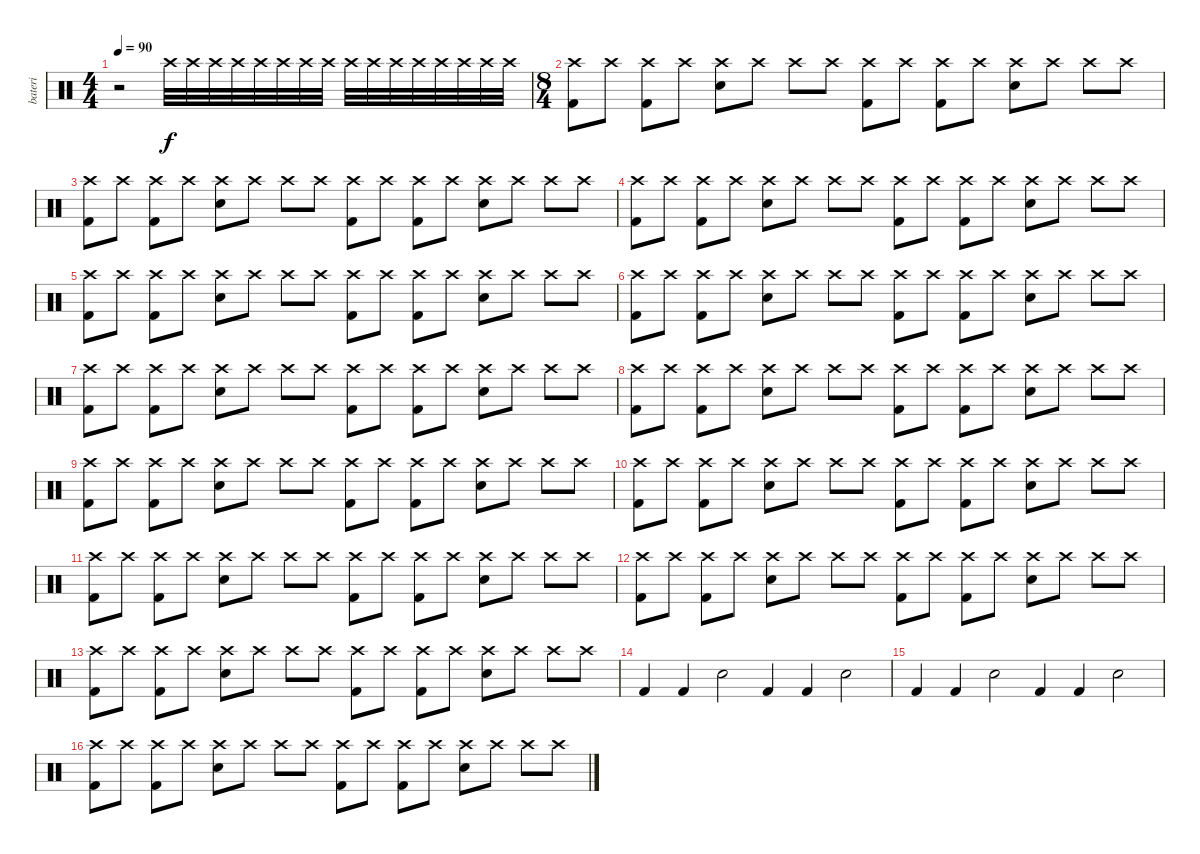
\track ("bateri" "bateri") {instrument percussion}
\staff {score}
\articulation defaults
\ts (4 4)
\tempo 90
\clef neutral
\ks c
r.2{dy f} "Crash high (hit)".32{volume 2} "Crash high (hit)".32{volume 4} "Crash high (hit)".32{volume 5} "Crash high (hit)".32{volume 7} "Crash high (hit)".32{volume 8} "Crash high (hit)".32{volume 9} "Crash high (hit)".32{volume 11} "Crash high (hit)".32{volume 13} "Crash high (hit)".32 "Crash high (hit)".32 "Crash high (hit)".32 "Crash high (hit)".32 "Crash high (hit)".32 "Crash high (hit)".32 "Crash high (hit)".32 "Crash high (hit)".32 |
\ts (8 4)
("Kick (hit) 2" "Crash high (hit)").8 "Crash high (hit)".8 ("Crash high (hit)" "Kick (hit) 2").8 "Crash high (hit)".8 ("Crash high (hit)" "Snare (hit) 2").8 "Crash high (hit)".8 "Crash high (hit)".8 "Crash high (hit)".8 ("Kick (hit) 2" "Crash high (hit)").8 "Crash high (hit)".8 ("Crash high (hit)" "Kick (hit) 2").8 "Crash high (hit)".8 ("Crash high (hit)" "Snare (hit) 2").8 "Crash high (hit)".8 "Crash high (hit)".8 "Crash high (hit)".8 |
("Kick (hit) 2" "Crash high (hit)").8 "Crash high (hit)".8 ("Crash high (hit)" "Kick (hit) 2").8 "Crash high (hit)".8 ("Crash high (hit)" "Snare (hit) 2").8 "Crash high (hit)".8 "Crash high (hit)".8 "Crash high (hit)".8 ("Kick (hit) 2" "Crash high (hit)").8 "Crash high (hit)".8 ("Crash high (hit)" "Kick (hit) 2").8 "Crash high (hit)".8 ("Crash high (hit)" "Snare (hit) 2").8 "Crash high (hit)".8 "Crash high (hit)".8 "Crash high (hit)".8 |
("Kick (hit) 2" "Crash high (hit)").8 "Crash high (hit)".8 ("Crash high (hit)" "Kick (hit) 2").8 "Crash high (hit)".8 ("Crash high (hit)" "Snare (hit) 2").8 "Crash high (hit)".8 "Crash high (hit)".8 "Crash high (hit)".8 ("Kick (hit) 2" "Crash high (hit)").8 "Crash high (hit)".8 ("Crash high (hit)" "Kick (hit) 2").8 "Crash high (hit)".8 ("Crash high (hit)" "Snare (hit) 2").8 "Crash high (hit)".8 "Crash high (hit)".8 "Crash high (hit)".8 |
("Kick (hit) 2" "Crash high (hit)").8 "Crash high (hit)".8 ("Crash high (hit)" "Kick (hit) 2").8 "Crash high (hit)".8 ("Crash high (hit)" "Snare (hit) 2").8 "Crash high (hit)".8 "Crash high (hit)".8 "Crash high (hit)".8 ("Kick (hit) 2" "Crash high (hit)").8 "Crash high (hit)".8 ("Crash high (hit)" "Kick (hit) 2").8 "Crash high (hit)".8 ("Crash high (hit)" "Snare (hit) 2").8 "Crash high (hit)".8 "Crash high (hit)".8 "Crash high (hit)".8 |
("Kick (hit) 2" "Crash high (hit)").8 "Crash high (hit)".8 ("Crash high (hit)" "Kick (hit) 2").8 "Crash high (hit)".8 ("Crash high (hit)" "Snare (hit) 2").8 "Crash high (hit)".8 "Crash high (hit)".8 "Crash high (hit)".8 ("Kick (hit) 2" "Crash high (hit)").8 "Crash high (hit)".8 ("Crash high (hit)" "Kick (hit) 2").8 "Crash high (hit)".8 ("Crash high (hit)" "Snare (hit) 2").8 "Crash high (hit)".8 "Crash high (hit)".8 "Crash high (hit)".8 |
("Kick (hit) 2" "Crash high (hit)").8 "Crash high (hit)".8 ("Crash high (hit)" "Kick (hit) 2").8 "Crash high (hit)".8 ("Crash high (hit)" "Snare (hit) 2").8 "Crash high (hit)".8 "Crash high (hit)".8 "Crash high (hit)".8 ("Kick (hit) 2" "Crash high (hit)").8 "Crash high (hit)".8 ("Crash high (hit)" "Kick (hit) 2").8 "Crash high (hit)".8 ("Crash high (hit)" "Snare (hit) 2").8 "Crash high (hit)".8 "Crash high (hit)".8 "Crash high (hit)".8 |
("Kick (hit) 2" "Crash high (hit)").8 "Crash high (hit)".8 ("Crash high (hit)" "Kick (hit) 2").8 "Crash high (hit)".8 ("Crash high (hit)" "Snare (hit) 2").8 "Crash high (hit)".8 "Crash high (hit)".8 "Crash high (hit)".8 ("Kick (hit) 2" "Crash high (hit)").8 "Crash high (hit)".8 ("Crash high (hit)" "Kick (hit) 2").8 "Crash high (hit)".8 ("Crash high (hit)" "Snare (hit) 2").8 "Crash high (hit)".8 "Crash high (hit)".8 "Crash high (hit)".8 |
("Kick (hit) 2" "Crash high (hit)").8 "Crash high (hit)".8 ("Crash high (hit)" "Kick (hit) 2").8 "Crash high (hit)".8 ("Crash high (hit)" "Snare (hit) 2").8 "Crash high (hit)".8 "Crash high (hit)".8 "Crash high (hit)".8 ("Kick (hit) 2" "Crash high (hit)").8 "Crash high (hit)".8 ("Crash high (hit)" "Kick (hit) 2").8 "Crash high (hit)".8 ("Crash high (hit)" "Snare (hit) 2").8 "Crash high (hit)".8 "Crash high (hit)".8 "Crash high (hit)".8 |
("Kick (hit) 2" "Crash high (hit)").8 "Crash high (hit)".8 ("Crash high (hit)" "Kick (hit) 2").8 "Crash high (hit)".8 ("Crash high (hit)" "Snare (hit) 2").8 "Crash high (hit)".8 "Crash high (hit)".8 "Crash high (hit)".8 ("Kick (hit) 2" "Crash high (hit)").8 "Crash high (hit)".8 ("Crash high (hit)" "Kick (hit) 2").8 "Crash high (hit)".8 ("Crash high (hit)" "Snare (hit) 2").8 "Crash high (hit)".8 "Crash high (hit)".8 "Crash high (hit)".8 |
("Kick (hit) 2" "Crash high (hit)").8 "Crash high (hit)".8 ("Crash high (hit)" "Kick (hit) 2").8 "Crash high (hit)".8 ("Crash high (hit)" "Snare (hit) 2").8 "Crash high (hit)".8 "Crash high (hit)".8 "Crash high (hit)".8 ("Kick (hit) 2" "Crash high (hit)").8 "Crash high (hit)".8 ("Crash high (hit)" "Kick (hit) 2").8 "Crash high (hit)".8 ("Crash high (hit)" "Snare (hit) 2").8 "Crash high (hit)".8 "Crash high (hit)".8 "Crash high (hit)".8 |
("Kick (hit) 2" "Crash high (hit)").8 "Crash high (hit)".8 ("Crash high (hit)" "Kick (hit) 2").8 "Crash high (hit)".8 ("Crash high (hit)" "Snare (hit) 2").8 "Crash high (hit)".8 "Crash high (hit)".8 "Crash high (hit)".8 ("Kick (hit) 2" "Crash high (hit)").8 "Crash high (hit)".8 ("Crash high (hit)" "Kick (hit) 2").8 "Crash high (hit)".8 ("Crash high (hit)" "Snare (hit) 2").8 "Crash high (hit)".8 "Crash high (hit)".8 "Crash high (hit)".8 |
("Kick (hit) 2" "Crash high (hit)").8 "Crash high (hit)".8 ("Crash high (hit)" "Kick (hit) 2").8 "Crash high (hit)".8 ("Crash high (hit)" "Snare (hit) 2").8 "Crash high (hit)".8 "Crash high (hit)".8 "Crash high (hit)".8 ("Kick (hit) 2" "Crash high (hit)").8 "Crash high (hit)".8 ("Crash high (hit)" "Kick (hit) 2").8 "Crash high (hit)".8 ("Crash high (hit)" "Snare (hit) 2").8 "Crash high (hit)".8 "Crash high (hit)".8 "Crash high (hit)".8 |
"Kick (hit) 2".4 "Kick (hit) 2".4 "Snare (hit) 2".2 "Kick (hit) 2".4 "Kick (hit) 2".4 "Snare (hit) 2".2 |
"Kick (hit) 2".4 "Kick (hit) 2".4 "Snare (hit) 2".2 "Kick (hit) 2".4 "Kick (hit) 2".4 "Snare (hit) 2".2 |
("Kick (hit) 2" "Crash high (hit)").8 "Crash high (hit)".8 ("Crash high (hit)" "Kick (hit) 2").8 "Crash high (hit)".8 ("Crash high (hit)" "Snare (hit) 2").8 "Crash high (hit)".8 "Crash high (hit)".8 "Crash high (hit)".8 ("Kick (hit) 2" "Crash high (hit)").8 "Crash high (hit)".8 ("Crash high (hit)" "Kick (hit) 2").8 "Crash high (hit)".8 ("Crash high (hit)" "Snare (hit) 2").8 "Crash high (hit)".8 "Crash high (hit)".8 "Crash high (hit)".8
